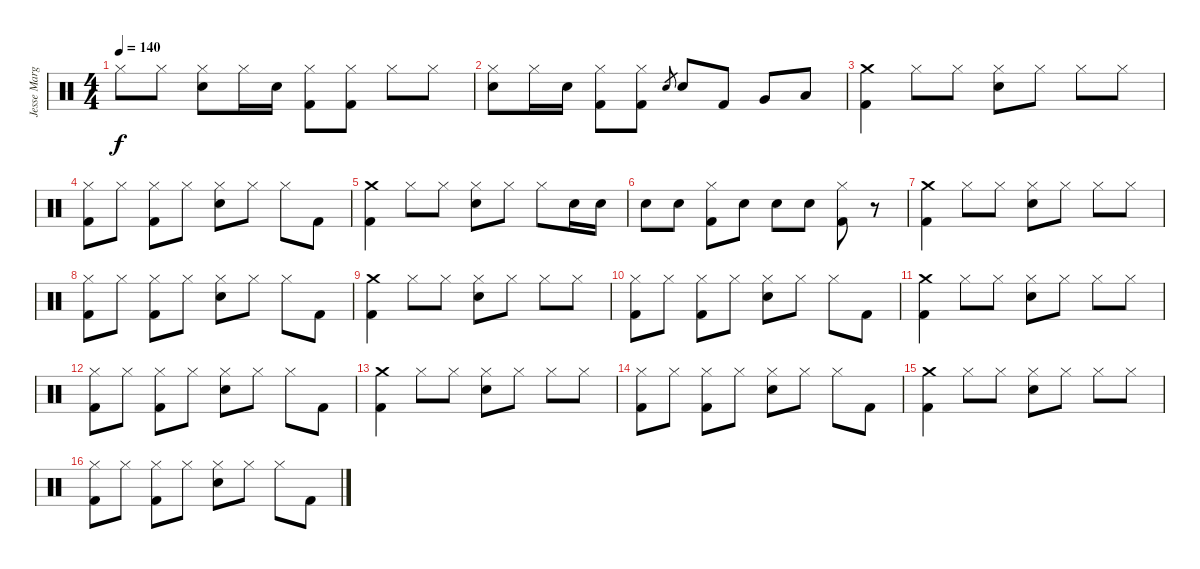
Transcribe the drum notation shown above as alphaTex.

\track ("Jesse Margera" "Jesse Marg") {instrument percussion}
\staff {score}
\articulation defaults
\ts (4 4)
\tempo 140
\clef neutral
\ks c "Hi-Hat (closed)".8{dy f} "Hi-Hat (closed)".8
("Hi-Hat (closed)" "Electric Snare (hit)").8 "Hi-Hat (closed)".16 "Electric Snare (hit)".16 ("Hi-Hat (closed)" "Kick (hit) 2").8 ("Hi-Hat (closed)" "Kick (hit) 2").8 "Hi-Hat (closed)".8 "Hi-Hat (closed)".8 |
("Hi-Hat (closed)" "Electric Snare (hit)").8 "Hi-Hat (closed)".16 "Electric Snare (hit)".16 ("Hi-Hat (closed)" "Kick (hit) 2").8 ("Hi-Hat (closed)" "Kick (hit) 2").8 "Electric Snare (hit)".8{gr} "Electric Snare (hit)".8 "Kick (hit) 2".8 "Very Low Tom (hit)".8 "Low Floor Tom (hit)".8 |
("Crash medium (hit)" "Kick (hit) 2").4 "Hi-Hat (closed)".8 "Hi-Hat (closed)".8 ("Hi-Hat (closed)" "Electric Snare (hit)").8 "Hi-Hat (closed)".8 "Hi-Hat (closed)".8 "Hi-Hat (closed)".8 |
("Hi-Hat (closed)" "Kick (hit) 2").8 "Hi-Hat (closed)".8 ("Hi-Hat (closed)" "Kick (hit) 2").8 "Hi-Hat (closed)".8 ("Hi-Hat (closed)" "Electric Snare (hit)").8 "Hi-Hat (closed)".8 "Hi-Hat (closed)".8 "Kick (hit) 2".8 |
("Crash medium (hit)" "Kick (hit) 2").4 "Hi-Hat (closed)".8 "Hi-Hat (closed)".8 ("Hi-Hat (closed)" "Electric Snare (hit)").8 "Hi-Hat (closed)".8 "Hi-Hat (closed)".8 "Electric Snare (hit)".16 "Electric Snare (hit)".16 |
"Electric Snare (hit)".8 "Electric Snare (hit)".8 ("Hi-Hat (closed)" "Kick (hit) 2").8 "Electric Snare (hit)".8 "Electric Snare (hit)".8 "Electric Snare (hit)".8 ("Hi-Hat (closed)" "Kick (hit) 2").8 r.8 |
("Crash medium (hit)" "Kick (hit) 2").4 "Hi-Hat (closed)".8 "Hi-Hat (closed)".8 ("Hi-Hat (closed)" "Electric Snare (hit)").8 "Hi-Hat (closed)".8 "Hi-Hat (closed)".8 "Hi-Hat (closed)".8 |
("Hi-Hat (closed)" "Kick (hit) 2").8 "Hi-Hat (closed)".8 ("Hi-Hat (closed)" "Kick (hit) 2").8 "Hi-Hat (closed)".8 ("Hi-Hat (closed)" "Electric Snare (hit)").8 "Hi-Hat (closed)".8 "Hi-Hat (closed)".8 "Kick (hit) 2".8 |
("Crash medium (hit)" "Kick (hit) 2").4 "Hi-Hat (closed)".8 "Hi-Hat (closed)".8 ("Hi-Hat (closed)" "Electric Snare (hit)").8 "Hi-Hat (closed)".8 "Hi-Hat (closed)".8 "Hi-Hat (closed)".8 |
("Hi-Hat (closed)" "Kick (hit) 2").8 "Hi-Hat (closed)".8 ("Hi-Hat (closed)" "Kick (hit) 2").8 "Hi-Hat (closed)".8 ("Hi-Hat (closed)" "Electric Snare (hit)").8 "Hi-Hat (closed)".8 "Hi-Hat (closed)".8 "Kick (hit) 2".8 |
("Crash medium (hit)" "Kick (hit) 2").4 "Hi-Hat (closed)".8 "Hi-Hat (closed)".8 ("Hi-Hat (closed)" "Electric Snare (hit)").8 "Hi-Hat (closed)".8 "Hi-Hat (closed)".8 "Hi-Hat (closed)".8 |
("Hi-Hat (closed)" "Kick (hit) 2").8 "Hi-Hat (closed)".8 ("Hi-Hat (closed)" "Kick (hit) 2").8 "Hi-Hat (closed)".8 ("Hi-Hat (closed)" "Electric Snare (hit)").8 "Hi-Hat (closed)".8 "Hi-Hat (closed)".8 "Kick (hit) 2".8 |
("Crash medium (hit)" "Kick (hit) 2").4 "Hi-Hat (closed)".8 "Hi-Hat (closed)".8 ("Hi-Hat (closed)" "Electric Snare (hit)").8 "Hi-Hat (closed)".8 "Hi-Hat (closed)".8 "Hi-Hat (closed)".8 |
("Hi-Hat (closed)" "Kick (hit) 2").8 "Hi-Hat (closed)".8 ("Hi-Hat (closed)" "Kick (hit) 2").8 "Hi-Hat (closed)".8 ("Hi-Hat (closed)" "Electric Snare (hit)").8 "Hi-Hat (closed)".8 "Hi-Hat (closed)".8 "Kick (hit) 2".8 |
("Crash medium (hit)" "Kick (hit) 2").4 "Hi-Hat (closed)".8 "Hi-Hat (closed)".8 ("Hi-Hat (closed)" "Electric Snare (hit)").8 "Hi-Hat (closed)".8 "Hi-Hat (closed)".8 "Hi-Hat (closed)".8 |
("Hi-Hat (closed)" "Kick (hit) 2").8 "Hi-Hat (closed)".8 ("Hi-Hat (closed)" "Kick (hit) 2").8 "Hi-Hat (closed)".8 ("Hi-Hat (closed)" "Electric Snare (hit)").8 "Hi-Hat (closed)".8 "Hi-Hat (closed)".8 "Kick (hit) 2".8
